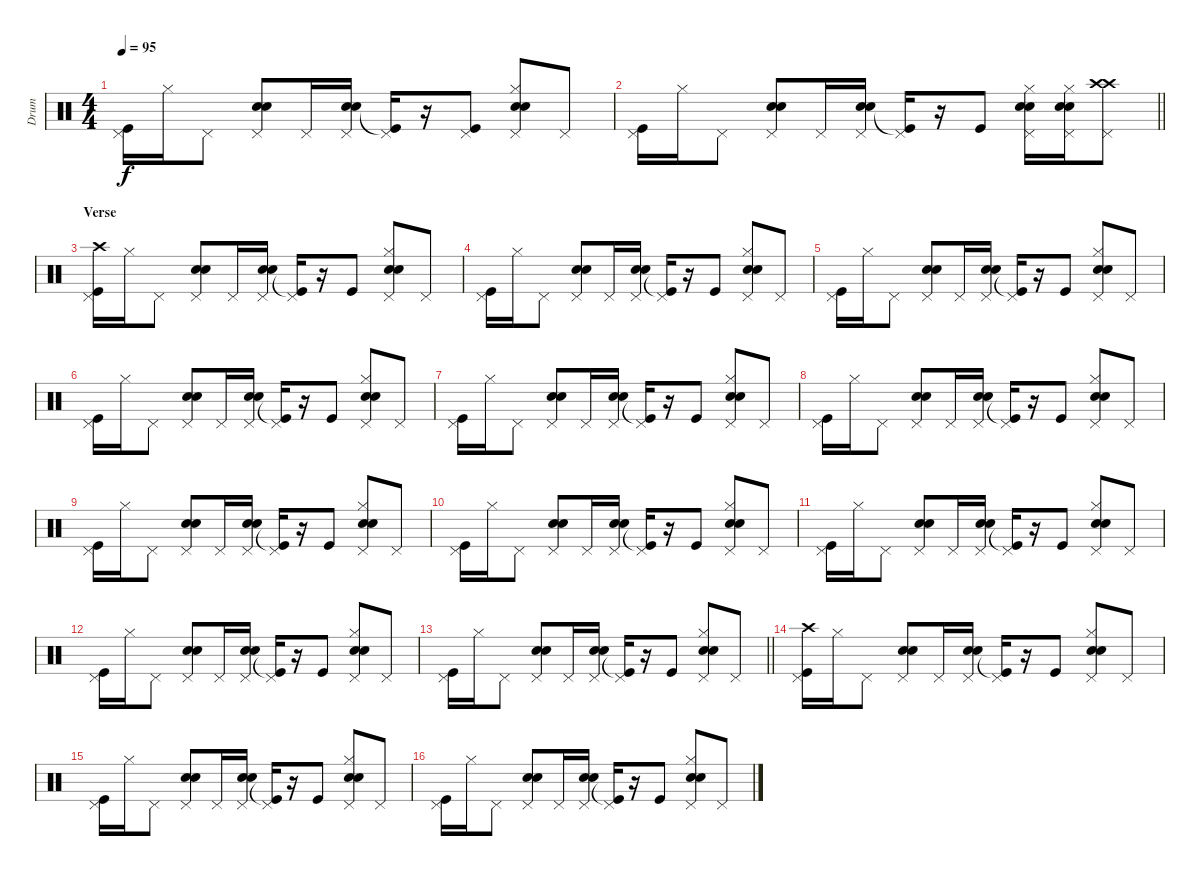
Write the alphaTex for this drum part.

\track ("Drum" "Drum") {instrument percussion}
\staff {score}
\articulation defaults
\ts (4 4)
\tempo 95
\clef neutral
\ks c
("Pedal Hi-Hat (hit)" "Kick (hit)").16{dy f} "Hi-Hat (closed)".16 "Pedal Hi-Hat (hit)".8 ("Pedal Hi-Hat (hit)" "Snare (hit) 2" "Snare (hit) 2").8 "Pedal Hi-Hat (hit)".16 ("Pedal Hi-Hat (hit)" "Snare (hit) 2" "Snare (hit) 2").16 ("Pedal Hi-Hat (hit)" "Kick (hit)"{t}).16 r.16 ("Pedal Hi-Hat (hit)" "Kick (hit)").8 ("Pedal Hi-Hat (hit)" "Hi-Hat (closed)" "Snare (hit) 2" "Snare (hit) 2").8 "Pedal Hi-Hat (hit)".8 |
\barLineRight lightlight
("Pedal Hi-Hat (hit)" "Kick (hit)").16 "Hi-Hat (closed)".16 "Pedal Hi-Hat (hit)".8 ("Pedal Hi-Hat (hit)" "Snare (hit) 2" "Snare (hit) 2").8 "Pedal Hi-Hat (hit)".16 ("Pedal Hi-Hat (hit)" "Snare (hit) 2" "Snare (hit) 2").16 ("Pedal Hi-Hat (hit)" "Kick (hit)"{t}).16 r.16 "Kick (hit)".8 ("Pedal Hi-Hat (hit)" "Hi-Hat (closed)" "Electric Snare (hit)" "Electric Snare (hit)").16 ("Pedal Hi-Hat (hit)" "Hi-Hat (closed)" "Electric Snare (hit)" "Electric Snare (hit)").16 ("Pedal Hi-Hat (hit)" "Crash high (hit)" "Crash high (hit)").8 |
\section ("" "Verse")
("Pedal Hi-Hat (hit)" "Crash high (hit)" "Kick (hit)").16 "Hi-Hat (closed)".16 "Pedal Hi-Hat (hit)".8 ("Pedal Hi-Hat (hit)" "Snare (hit) 2" "Snare (hit) 2").8 "Pedal Hi-Hat (hit)".16 ("Pedal Hi-Hat (hit)" "Snare (hit) 2" "Snare (hit) 2").16 ("Pedal Hi-Hat (hit)" "Kick (hit)"{t}).16 r.16 "Kick (hit)".8 ("Pedal Hi-Hat (hit)" "Hi-Hat (closed)" "Snare (hit) 2" "Snare (hit) 2").8 "Pedal Hi-Hat (hit)".8 |
("Pedal Hi-Hat (hit)" "Kick (hit)").16 "Hi-Hat (closed)".16 "Pedal Hi-Hat (hit)".8 ("Pedal Hi-Hat (hit)" "Snare (hit) 2" "Snare (hit) 2").8 "Pedal Hi-Hat (hit)".16 ("Pedal Hi-Hat (hit)" "Snare (hit) 2" "Snare (hit) 2").16 ("Pedal Hi-Hat (hit)" "Kick (hit)"{t}).16 r.16 "Kick (hit)".8 ("Pedal Hi-Hat (hit)" "Hi-Hat (closed)" "Snare (hit) 2" "Snare (hit) 2").8 "Pedal Hi-Hat (hit)".8 |
("Pedal Hi-Hat (hit)" "Kick (hit)").16 "Hi-Hat (closed)".16 "Pedal Hi-Hat (hit)".8 ("Pedal Hi-Hat (hit)" "Snare (hit) 2" "Snare (hit) 2").8 "Pedal Hi-Hat (hit)".16 ("Pedal Hi-Hat (hit)" "Snare (hit) 2" "Snare (hit) 2").16 ("Pedal Hi-Hat (hit)" "Kick (hit)"{t}).16 r.16 "Kick (hit)".8 ("Pedal Hi-Hat (hit)" "Hi-Hat (closed)" "Snare (hit) 2" "Snare (hit) 2").8 "Pedal Hi-Hat (hit)".8 |
("Pedal Hi-Hat (hit)" "Kick (hit)").16 "Hi-Hat (closed)".16 "Pedal Hi-Hat (hit)".8 ("Pedal Hi-Hat (hit)" "Snare (hit) 2" "Snare (hit) 2").8 "Pedal Hi-Hat (hit)".16 ("Pedal Hi-Hat (hit)" "Snare (hit) 2" "Snare (hit) 2").16 ("Pedal Hi-Hat (hit)" "Kick (hit)"{t}).16 r.16 "Kick (hit)".8 ("Pedal Hi-Hat (hit)" "Hi-Hat (closed)" "Snare (hit) 2" "Snare (hit) 2").8 "Pedal Hi-Hat (hit)".8 |
("Pedal Hi-Hat (hit)" "Kick (hit)").16 "Hi-Hat (closed)".16 "Pedal Hi-Hat (hit)".8 ("Pedal Hi-Hat (hit)" "Snare (hit) 2" "Snare (hit) 2").8 "Pedal Hi-Hat (hit)".16 ("Pedal Hi-Hat (hit)" "Snare (hit) 2" "Snare (hit) 2").16 ("Pedal Hi-Hat (hit)" "Kick (hit)"{t}).16 r.16 "Kick (hit)".8 ("Pedal Hi-Hat (hit)" "Hi-Hat (closed)" "Snare (hit) 2" "Snare (hit) 2").8 "Pedal Hi-Hat (hit)".8 |
("Pedal Hi-Hat (hit)" "Kick (hit)").16 "Hi-Hat (closed)".16 "Pedal Hi-Hat (hit)".8 ("Pedal Hi-Hat (hit)" "Snare (hit) 2" "Snare (hit) 2").8 "Pedal Hi-Hat (hit)".16 ("Pedal Hi-Hat (hit)" "Snare (hit) 2" "Snare (hit) 2").16 ("Pedal Hi-Hat (hit)" "Kick (hit)"{t}).16 r.16 "Kick (hit)".8 ("Pedal Hi-Hat (hit)" "Hi-Hat (closed)" "Snare (hit) 2" "Snare (hit) 2").8 "Pedal Hi-Hat (hit)".8 |
("Pedal Hi-Hat (hit)" "Kick (hit)").16 "Hi-Hat (closed)".16 "Pedal Hi-Hat (hit)".8 ("Pedal Hi-Hat (hit)" "Snare (hit) 2" "Snare (hit) 2").8 "Pedal Hi-Hat (hit)".16 ("Pedal Hi-Hat (hit)" "Snare (hit) 2" "Snare (hit) 2").16 ("Pedal Hi-Hat (hit)" "Kick (hit)"{t}).16 r.16 "Kick (hit)".8 ("Pedal Hi-Hat (hit)" "Hi-Hat (closed)" "Snare (hit) 2" "Snare (hit) 2").8 "Pedal Hi-Hat (hit)".8 |
("Pedal Hi-Hat (hit)" "Kick (hit)").16 "Hi-Hat (closed)".16 "Pedal Hi-Hat (hit)".8 ("Pedal Hi-Hat (hit)" "Snare (hit) 2" "Snare (hit) 2").8 "Pedal Hi-Hat (hit)".16 ("Pedal Hi-Hat (hit)" "Snare (hit) 2" "Snare (hit) 2").16 ("Pedal Hi-Hat (hit)" "Kick (hit)"{t}).16 r.16 "Kick (hit)".8 ("Pedal Hi-Hat (hit)" "Hi-Hat (closed)" "Snare (hit) 2" "Snare (hit) 2").8 "Pedal Hi-Hat (hit)".8 |
("Pedal Hi-Hat (hit)" "Kick (hit)").16 "Hi-Hat (closed)".16 "Pedal Hi-Hat (hit)".8 ("Pedal Hi-Hat (hit)" "Snare (hit) 2" "Snare (hit) 2").8 "Pedal Hi-Hat (hit)".16 ("Pedal Hi-Hat (hit)" "Snare (hit) 2" "Snare (hit) 2").16 ("Pedal Hi-Hat (hit)" "Kick (hit)"{t}).16 r.16 "Kick (hit)".8 ("Pedal Hi-Hat (hit)" "Hi-Hat (closed)" "Snare (hit) 2" "Snare (hit) 2").8 "Pedal Hi-Hat (hit)".8 |
("Pedal Hi-Hat (hit)" "Kick (hit)").16 "Hi-Hat (closed)".16 "Pedal Hi-Hat (hit)".8 ("Pedal Hi-Hat (hit)" "Snare (hit) 2" "Snare (hit) 2").8 "Pedal Hi-Hat (hit)".16 ("Pedal Hi-Hat (hit)" "Snare (hit) 2" "Snare (hit) 2").16 ("Pedal Hi-Hat (hit)" "Kick (hit)"{t}).16 r.16 "Kick (hit)".8 ("Pedal Hi-Hat (hit)" "Hi-Hat (closed)" "Snare (hit) 2" "Snare (hit) 2").8 "Pedal Hi-Hat (hit)".8 |
\barLineRight lightlight
("Pedal Hi-Hat (hit)" "Kick (hit)").16 "Hi-Hat (closed)".16 "Pedal Hi-Hat (hit)".8 ("Pedal Hi-Hat (hit)" "Snare (hit) 2" "Snare (hit) 2").8 "Pedal Hi-Hat (hit)".16 ("Pedal Hi-Hat (hit)" "Snare (hit) 2" "Snare (hit) 2").16 ("Pedal Hi-Hat (hit)" "Kick (hit)"{t}).16 r.16 "Kick (hit)".8 ("Pedal Hi-Hat (hit)" "Hi-Hat (closed)" "Snare (hit) 2" "Snare (hit) 2").8 "Pedal Hi-Hat (hit)".8 |
("Pedal Hi-Hat (hit)" "Crash high (hit)" "Kick (hit)").16 "Hi-Hat (closed)".16 "Pedal Hi-Hat (hit)".8 ("Pedal Hi-Hat (hit)" "Snare (hit) 2" "Snare (hit) 2").8 "Pedal Hi-Hat (hit)".16 ("Pedal Hi-Hat (hit)" "Snare (hit) 2" "Snare (hit) 2").16 ("Pedal Hi-Hat (hit)" "Kick (hit)"{t}).16 r.16 "Kick (hit)".8 ("Pedal Hi-Hat (hit)" "Hi-Hat (closed)" "Snare (hit) 2" "Snare (hit) 2").8 "Pedal Hi-Hat (hit)".8 |
("Pedal Hi-Hat (hit)" "Kick (hit)").16 "Hi-Hat (closed)".16 "Pedal Hi-Hat (hit)".8 ("Pedal Hi-Hat (hit)" "Snare (hit) 2" "Snare (hit) 2").8 "Pedal Hi-Hat (hit)".16 ("Pedal Hi-Hat (hit)" "Snare (hit) 2" "Snare (hit) 2").16 ("Pedal Hi-Hat (hit)" "Kick (hit)"{t}).16 r.16 "Kick (hit)".8 ("Pedal Hi-Hat (hit)" "Hi-Hat (closed)" "Snare (hit) 2" "Snare (hit) 2").8 "Pedal Hi-Hat (hit)".8 |
("Pedal Hi-Hat (hit)" "Kick (hit)").16 "Hi-Hat (closed)".16 "Pedal Hi-Hat (hit)".8 ("Pedal Hi-Hat (hit)" "Snare (hit) 2" "Snare (hit) 2").8 "Pedal Hi-Hat (hit)".16 ("Pedal Hi-Hat (hit)" "Snare (hit) 2" "Snare (hit) 2").16 ("Pedal Hi-Hat (hit)" "Kick (hit)"{t}).16 r.16 "Kick (hit)".8 ("Pedal Hi-Hat (hit)" "Hi-Hat (closed)" "Snare (hit) 2" "Snare (hit) 2").8 "Pedal Hi-Hat (hit)".8
